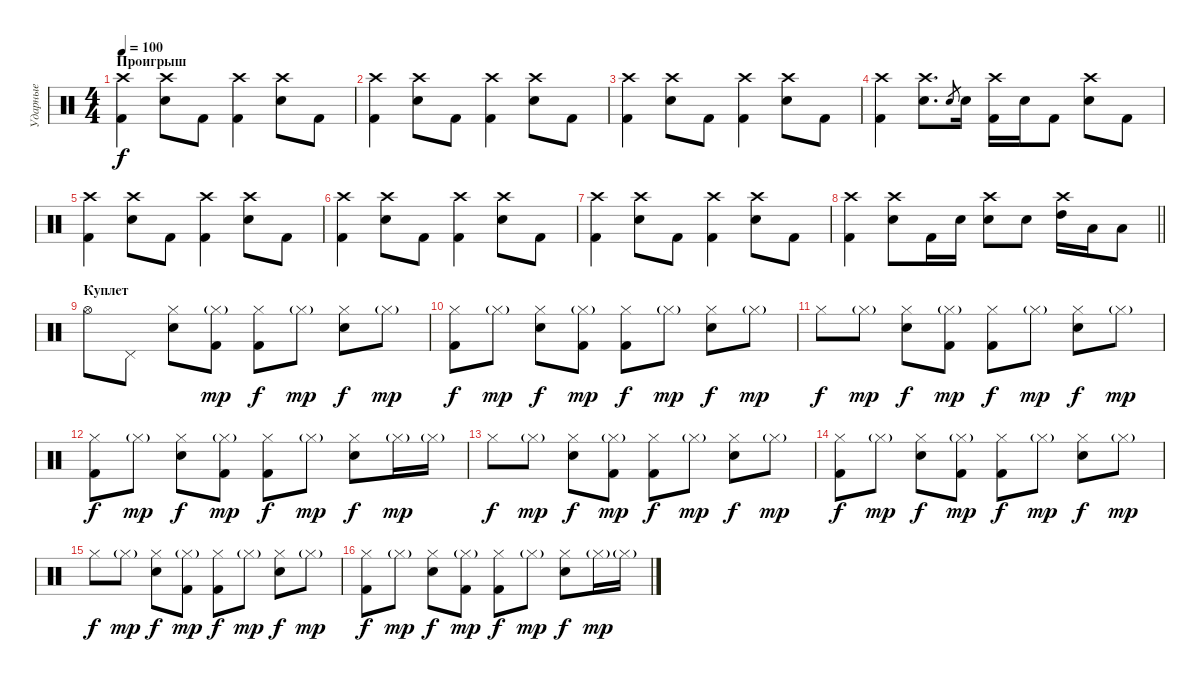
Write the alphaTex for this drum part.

\track ("Ударные" "Ударные") {instrument percussion}
\staff {score}
\articulation defaults
\ts (4 4)
\section ("" "Проигрыш")
\tempo 100
\clef neutral
\ks c
("Crash high (hit)" "Kick (hit) 2").4{dy f} ("Crash high (hit)" "Electric Snare (hit)").8 "Kick (hit) 2".8 ("Crash high (hit)" "Kick (hit) 2").4 ("Crash high (hit)" "Electric Snare (hit)").8 "Kick (hit) 2".8 |
("Crash high (hit)" "Kick (hit) 2").4 ("Crash high (hit)" "Electric Snare (hit)").8 "Kick (hit) 2".8 ("Crash high (hit)" "Kick (hit) 2").4 ("Crash high (hit)" "Electric Snare (hit)").8 "Kick (hit) 2".8 |
("Crash high (hit)" "Kick (hit) 2").4 ("Crash high (hit)" "Electric Snare (hit)").8 "Kick (hit) 2".8 ("Crash high (hit)" "Kick (hit) 2").4 ("Crash high (hit)" "Electric Snare (hit)").8 "Kick (hit) 2".8 |
("Crash high (hit)" "Kick (hit) 2").4 ("Crash high (hit)" "Electric Snare (hit)").8{d} "Electric Snare (hit)".8{gr} "Electric Snare (hit)".16 ("Crash high (hit)" "Kick (hit) 2").16 "Electric Snare (hit)".16 "Kick (hit) 2".8 ("Crash high (hit)" "Electric Snare (hit)").8 "Kick (hit) 2".8 |
("Crash high (hit)" "Kick (hit) 2").4 ("Crash high (hit)" "Electric Snare (hit)").8 "Kick (hit) 2".8 ("Crash high (hit)" "Kick (hit) 2").4 ("Crash high (hit)" "Electric Snare (hit)").8 "Kick (hit) 2".8 |
("Crash high (hit)" "Kick (hit) 2").4 ("Crash high (hit)" "Electric Snare (hit)").8 "Kick (hit) 2".8 ("Crash high (hit)" "Kick (hit) 2").4 ("Crash high (hit)" "Electric Snare (hit)").8 "Kick (hit) 2".8 |
("Crash high (hit)" "Kick (hit) 2").4 ("Crash high (hit)" "Electric Snare (hit)").8 "Kick (hit) 2".8 ("Crash high (hit)" "Kick (hit) 2").4 ("Crash high (hit)" "Electric Snare (hit)").8 "Kick (hit) 2".8 |
\barLineRight lightlight
("Crash high (hit)" "Kick (hit) 2").4 ("Crash high (hit)" "Electric Snare (hit)").8 "Kick (hit) 2".16 "Electric Snare (hit)".16 ("Crash high (hit)" "Electric Snare (hit)").8 "Electric Snare (hit)".8 ("Crash high (hit)" "High Tom (hit)").16 "Low Tom (hit)".16 "Low Tom (hit)".8 |
\section ("" "Куплет")
"Hi-Hat (open)".8 "Pedal Hi-Hat (hit)".8 ("Hi-Hat (closed)" "Electric Snare (hit)").8 ("Hi-Hat (closed)"{g} "Kick (hit) 2").8{dy mp} ("Hi-Hat (closed)" "Kick (hit) 2").8{dy f} "Hi-Hat (closed)"{g}.8{dy mp} ("Hi-Hat (closed)" "Electric Snare (hit)").8{dy f} "Hi-Hat (closed)"{g}.8{dy mp} |
("Hi-Hat (closed)" "Kick (hit) 2").8{dy f} "Hi-Hat (closed)"{g}.8{dy mp} ("Hi-Hat (closed)" "Electric Snare (hit)").8{dy f} ("Hi-Hat (closed)"{g} "Kick (hit) 2").8{dy mp} ("Hi-Hat (closed)" "Kick (hit) 2").8{dy f} "Hi-Hat (closed)"{g}.8{dy mp} ("Hi-Hat (closed)" "Electric Snare (hit)").8{dy f} "Hi-Hat (closed)"{g}.8{dy mp} |
"Hi-Hat (closed)".8{dy f} "Hi-Hat (closed)"{g}.8{dy mp} ("Hi-Hat (closed)" "Electric Snare (hit)").8{dy f} ("Hi-Hat (closed)"{g} "Kick (hit) 2").8{dy mp} ("Hi-Hat (closed)" "Kick (hit) 2").8{dy f} "Hi-Hat (closed)"{g}.8{dy mp} ("Hi-Hat (closed)" "Electric Snare (hit)").8{dy f} "Hi-Hat (closed)"{g}.8{dy mp} |
("Hi-Hat (closed)" "Kick (hit) 2").8{dy f} "Hi-Hat (closed)"{g}.8{dy mp} ("Hi-Hat (closed)" "Electric Snare (hit)").8{dy f} ("Hi-Hat (closed)"{g} "Kick (hit) 2").8{dy mp} ("Hi-Hat (closed)" "Kick (hit) 2").8{dy f} "Hi-Hat (closed)"{g}.8{dy mp} ("Hi-Hat (closed)" "Electric Snare (hit)").8{dy f} "Hi-Hat (closed)"{g}.16{dy mp} "Hi-Hat (closed)"{g}.16 |
"Hi-Hat (closed)".8{dy f} "Hi-Hat (closed)"{g}.8{dy mp} ("Hi-Hat (closed)" "Electric Snare (hit)").8{dy f} ("Hi-Hat (closed)"{g} "Kick (hit) 2").8{dy mp} ("Hi-Hat (closed)" "Kick (hit) 2").8{dy f} "Hi-Hat (closed)"{g}.8{dy mp} ("Hi-Hat (closed)" "Electric Snare (hit)").8{dy f} "Hi-Hat (closed)"{g}.8{dy mp} |
("Hi-Hat (closed)" "Kick (hit) 2").8{dy f} "Hi-Hat (closed)"{g}.8{dy mp} ("Hi-Hat (closed)" "Electric Snare (hit)").8{dy f} ("Hi-Hat (closed)"{g} "Kick (hit) 2").8{dy mp} ("Hi-Hat (closed)" "Kick (hit) 2").8{dy f} "Hi-Hat (closed)"{g}.8{dy mp} ("Hi-Hat (closed)" "Electric Snare (hit)").8{dy f} "Hi-Hat (closed)"{g}.8{dy mp} |
"Hi-Hat (closed)".8{dy f} "Hi-Hat (closed)"{g}.8{dy mp} ("Hi-Hat (closed)" "Electric Snare (hit)").8{dy f} ("Hi-Hat (closed)"{g} "Kick (hit) 2").8{dy mp} ("Hi-Hat (closed)" "Kick (hit) 2").8{dy f} "Hi-Hat (closed)"{g}.8{dy mp} ("Hi-Hat (closed)" "Electric Snare (hit)").8{dy f} "Hi-Hat (closed)"{g}.8{dy mp} |
("Hi-Hat (closed)" "Kick (hit) 2").8{dy f} "Hi-Hat (closed)"{g}.8{dy mp} ("Hi-Hat (closed)" "Electric Snare (hit)").8{dy f} ("Hi-Hat (closed)"{g} "Kick (hit) 2").8{dy mp} ("Hi-Hat (closed)" "Kick (hit) 2").8{dy f} "Hi-Hat (closed)"{g}.8{dy mp} ("Hi-Hat (closed)" "Electric Snare (hit)").8{dy f} "Hi-Hat (closed)"{g}.16{dy mp} "Hi-Hat (closed)"{g}.16
